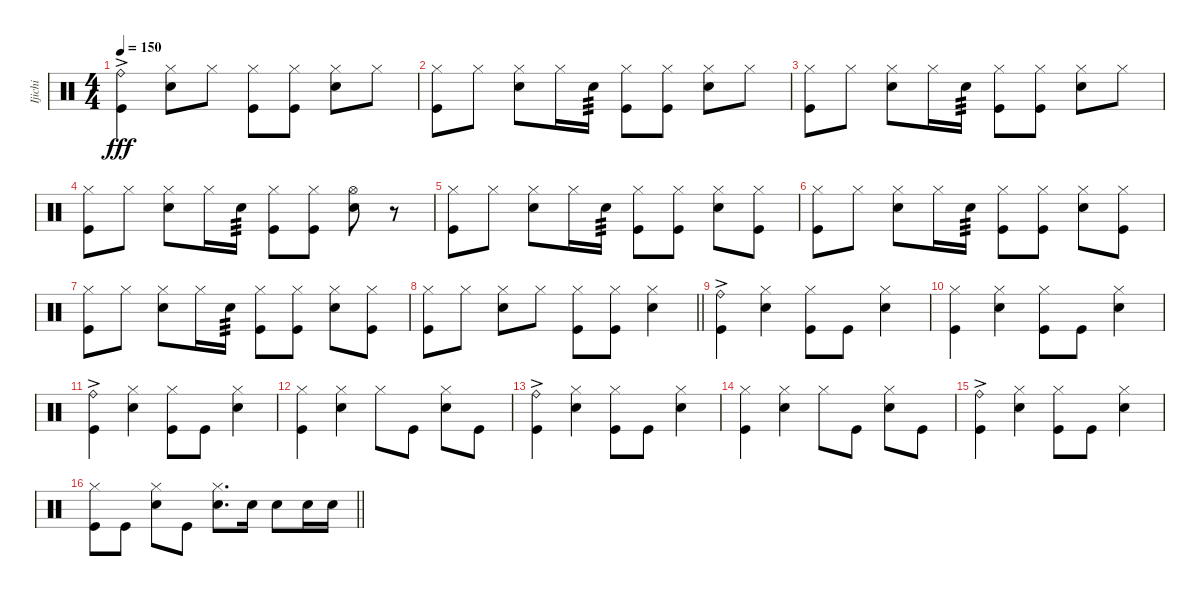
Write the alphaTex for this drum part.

\track ("Ijichi" "Ijichi") {instrument percussion}
\staff {score}
\articulation defaults
\ts (4 4)
\tempo 150
\clef neutral
\ks c
("Ride (bell)"{ac} "Kick (hit)").4{dy fff} ("Hi-Hat (closed)" "Snare (hit) 2").8 "Hi-Hat (closed)".8 ("Hi-Hat (closed)" "Kick (hit)").8 ("Hi-Hat (closed)" "Kick (hit)").8 ("Hi-Hat (closed)" "Snare (hit) 2").8 "Hi-Hat (closed)".8 |
("Hi-Hat (closed)" "Kick (hit)").8 "Hi-Hat (closed)".8 ("Hi-Hat (closed)" "Snare (hit) 2").8 "Hi-Hat (closed)".16 "Snare (hit) 2".16{tp 3} ("Hi-Hat (closed)" "Kick (hit)").8 ("Hi-Hat (closed)" "Kick (hit)").8 ("Hi-Hat (closed)" "Snare (hit) 2").8 "Hi-Hat (closed)".8 |
("Hi-Hat (closed)" "Kick (hit)").8 "Hi-Hat (closed)".8 ("Hi-Hat (closed)" "Snare (hit) 2").8 "Hi-Hat (closed)".16 "Snare (hit) 2".16{tp 3} ("Hi-Hat (closed)" "Kick (hit)").8 ("Hi-Hat (closed)" "Kick (hit)").8 ("Hi-Hat (closed)" "Snare (hit) 2").8 "Hi-Hat (closed)".8 |
("Hi-Hat (closed)" "Kick (hit)").8 "Hi-Hat (closed)".8 ("Hi-Hat (closed)" "Snare (hit) 2").8 "Hi-Hat (closed)".16 "Snare (hit) 2".16{tp 3} ("Hi-Hat (closed)" "Kick (hit)").8 ("Hi-Hat (closed)" "Kick (hit)").8 ("Hi-Hat (open)" "Snare (hit) 2").8 r.8 |
("Hi-Hat (closed)" "Kick (hit)").8 "Hi-Hat (closed)".8 ("Hi-Hat (closed)" "Snare (hit) 2").8 "Hi-Hat (closed)".16 "Snare (hit) 2".16{tp 3} ("Hi-Hat (closed)" "Kick (hit)").8 ("Hi-Hat (closed)" "Kick (hit)").8 ("Hi-Hat (closed)" "Snare (hit) 2").8 ("Hi-Hat (closed)" "Kick (hit)").8 |
("Hi-Hat (closed)" "Kick (hit)").8 "Hi-Hat (closed)".8 ("Hi-Hat (closed)" "Snare (hit) 2").8 "Hi-Hat (closed)".16 "Snare (hit) 2".16{tp 3} ("Hi-Hat (closed)" "Kick (hit)").8 ("Hi-Hat (closed)" "Kick (hit)").8 ("Hi-Hat (closed)" "Snare (hit) 2").8 ("Hi-Hat (closed)" "Kick (hit)").8 |
("Hi-Hat (closed)" "Kick (hit)").8 "Hi-Hat (closed)".8 ("Hi-Hat (closed)" "Snare (hit) 2").8 "Hi-Hat (closed)".16 "Snare (hit) 2".16{tp 3} ("Hi-Hat (closed)" "Kick (hit)").8 ("Hi-Hat (closed)" "Kick (hit)").8 ("Hi-Hat (closed)" "Snare (hit) 2").8 ("Hi-Hat (closed)" "Kick (hit)").8 |
\barLineRight lightlight
("Hi-Hat (closed)" "Kick (hit)").8 "Hi-Hat (closed)".8 ("Hi-Hat (closed)" "Snare (hit) 2").8 "Hi-Hat (closed)".8 ("Hi-Hat (closed)" "Kick (hit)").8 ("Hi-Hat (closed)" "Kick (hit)").8 ("Hi-Hat (closed)" "Snare (hit) 2").4 |
("Ride (bell)"{ac} "Kick (hit)").4 ("Hi-Hat (closed)" "Snare (hit) 2").4 ("Hi-Hat (closed)" "Kick (hit)").8 "Kick (hit)".8 ("Hi-Hat (closed)" "Snare (hit) 2").4 |
("Hi-Hat (closed)" "Kick (hit)").4 ("Hi-Hat (closed)" "Snare (hit) 2").4 ("Hi-Hat (closed)" "Kick (hit)").8 "Kick (hit)".8 ("Hi-Hat (closed)" "Snare (hit) 2").4 |
("Ride (bell)"{ac} "Kick (hit)").4 ("Hi-Hat (closed)" "Snare (hit) 2").4 ("Hi-Hat (closed)" "Kick (hit)").8 "Kick (hit)".8 ("Hi-Hat (closed)" "Snare (hit) 2").4 |
("Hi-Hat (closed)" "Kick (hit)").4 ("Hi-Hat (closed)" "Snare (hit) 2").4 "Hi-Hat (closed)".8 "Kick (hit)".8 ("Hi-Hat (closed)" "Snare (hit) 2").8 "Kick (hit)".8 |
("Ride (bell)"{ac} "Kick (hit)").4 ("Hi-Hat (closed)" "Snare (hit) 2").4 ("Hi-Hat (closed)" "Kick (hit)").8 "Kick (hit)".8 ("Hi-Hat (closed)" "Snare (hit) 2").4 |
("Hi-Hat (closed)" "Kick (hit)").4 ("Hi-Hat (closed)" "Snare (hit) 2").4 "Hi-Hat (closed)".8 "Kick (hit)".8 ("Hi-Hat (closed)" "Snare (hit) 2").8 "Kick (hit)".8 |
("Ride (bell)"{ac} "Kick (hit)").4 ("Hi-Hat (closed)" "Snare (hit) 2").4 ("Hi-Hat (closed)" "Kick (hit)").8 "Kick (hit)".8 ("Hi-Hat (closed)" "Snare (hit) 2").4 |
\barLineRight lightlight
("Hi-Hat (closed)" "Kick (hit)").8 "Kick (hit)".8 ("Hi-Hat (closed)" "Snare (hit) 2").8 "Kick (hit)".8 ("Hi-Hat (closed)" "Snare (hit) 2").8{d} "Snare (hit) 2".16 "Snare (hit) 2".8 "Snare (hit) 2".16 "Snare (hit) 2".16
